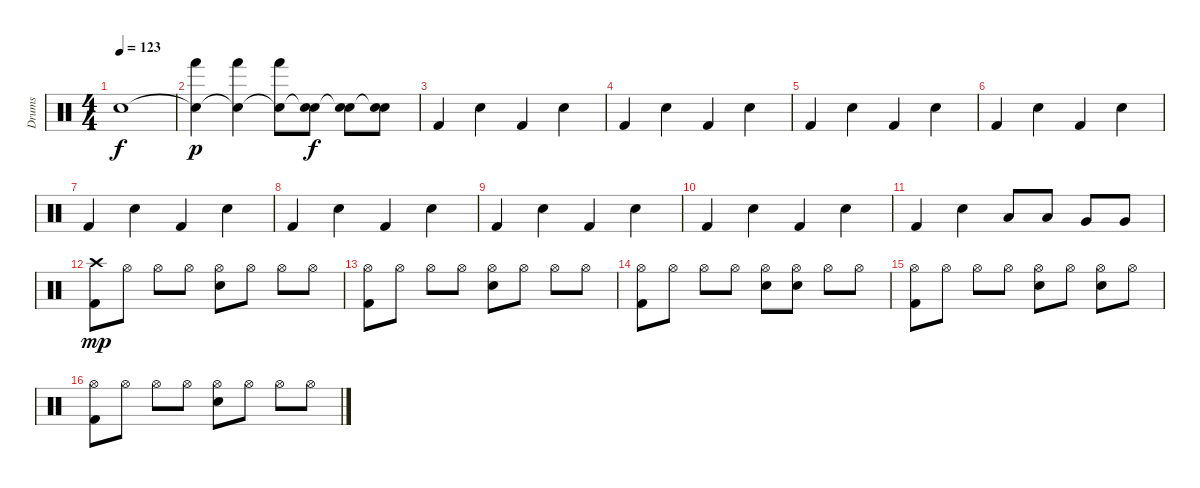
\track ("Drums" "Drums") {instrument percussion}
\staff {score}
\articulation defaults
\ts (4 4)
\tempo 123
\clef neutral
\ks c "Snare (hit)"{t}.1{dy f}
|
("Snare (hit)"{t} "Hand (hit)").4{dy p} ("Snare (hit)"{t} "Hand (hit)").4 ("Snare (hit)"{t} "Hand (hit)").8 ("Snare (hit)"{t} "Electric Snare (hit)").8{dy f} ("Snare (hit)"{t} "Electric Snare (hit)").8 ("Snare (hit)"{t} "Electric Snare (hit)").8 |
"Kick (hit) 2".4 "Electric Snare (hit)".4 "Kick (hit) 2".4 "Electric Snare (hit)".4 |
"Kick (hit) 2".4 "Electric Snare (hit)".4 "Kick (hit) 2".4 "Electric Snare (hit)".4 |
"Kick (hit) 2".4 "Electric Snare (hit)".4 "Kick (hit) 2".4 "Electric Snare (hit)".4 |
"Kick (hit) 2".4 "Electric Snare (hit)".4 "Kick (hit) 2".4 "Electric Snare (hit)".4 |
"Kick (hit) 2".4 "Electric Snare (hit)".4 "Kick (hit) 2".4 "Electric Snare (hit)".4 |
"Kick (hit) 2".4 "Electric Snare (hit)".4 "Kick (hit) 2".4 "Electric Snare (hit)".4 |
"Kick (hit) 2".4 "Electric Snare (hit)".4 "Kick (hit) 2".4 "Electric Snare (hit)".4 |
"Kick (hit) 2".4 "Electric Snare (hit)".4 "Kick (hit) 2".4 "Electric Snare (hit)".4 |
"Kick (hit) 2".4 "Electric Snare (hit)".4 "Low Tom (hit)".8 "Low Tom (hit)".8 "Very Low Tom (hit)".8 "Very Low Tom (hit)".8 |
("Crash high (hit)" "Kick (hit) 2").8{dy mp} "Hi-Hat (open)".8 "Hi-Hat (open)".8 "Hi-Hat (open)".8 ("Hi-Hat (open)" "Electric Snare (hit)").8 "Hi-Hat (open)".8 "Hi-Hat (open)".8 "Hi-Hat (open)".8 |
("Hi-Hat (open)" "Kick (hit) 2").8 "Hi-Hat (open)".8 "Hi-Hat (open)".8 "Hi-Hat (open)".8 ("Hi-Hat (open)" "Electric Snare (hit)").8 "Hi-Hat (open)".8 "Hi-Hat (open)".8 "Hi-Hat (open)".8 |
("Hi-Hat (open)" "Kick (hit) 2").8 "Hi-Hat (open)".8 "Hi-Hat (open)".8 "Hi-Hat (open)".8 ("Hi-Hat (open)" "Electric Snare (hit)").8 ("Hi-Hat (open)" "Electric Snare (hit)").8 "Hi-Hat (open)".8 "Hi-Hat (open)".8 |
("Hi-Hat (open)" "Kick (hit) 2").8 "Hi-Hat (open)".8 "Hi-Hat (open)".8 "Hi-Hat (open)".8 ("Hi-Hat (open)" "Electric Snare (hit)").8 "Hi-Hat (open)".8 ("Hi-Hat (open)" "Electric Snare (hit)").8 "Hi-Hat (open)".8 |
("Hi-Hat (open)" "Kick (hit) 2").8 "Hi-Hat (open)".8 "Hi-Hat (open)".8 "Hi-Hat (open)".8 ("Hi-Hat (open)" "Electric Snare (hit)").8 "Hi-Hat (open)".8 "Hi-Hat (open)".8 "Hi-Hat (open)".8
